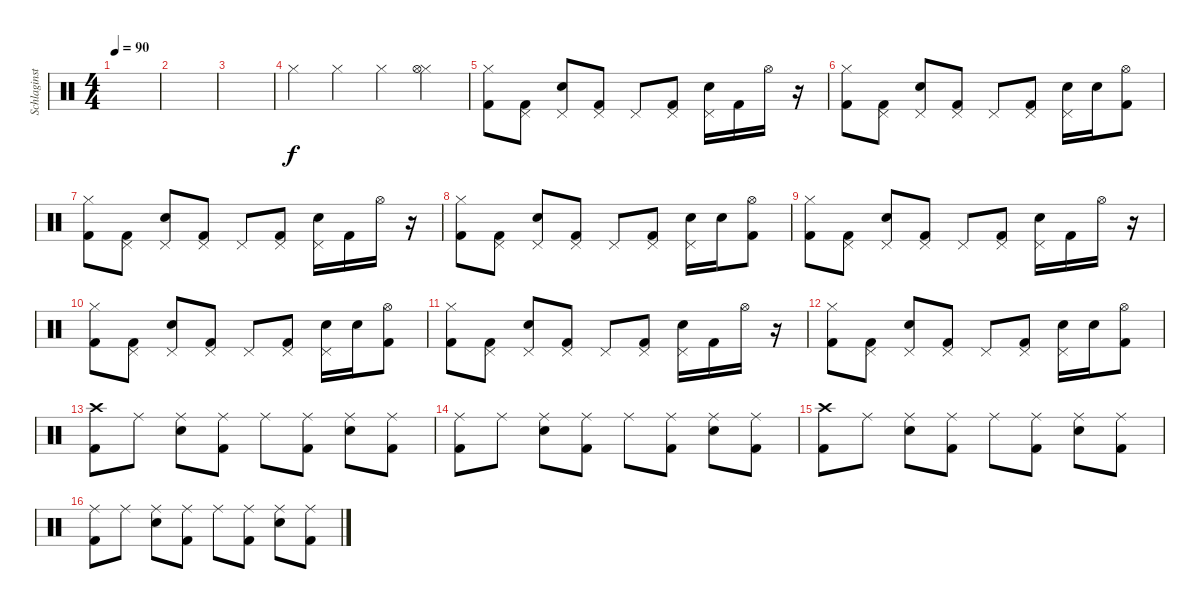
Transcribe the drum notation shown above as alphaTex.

\track ("Schlaginstrumente - Auswahl" "Schlaginst") {instrument percussion}
\staff {score}
\articulation defaults
\ts (4 4)
\tempo 90
\clef neutral
\ks c
|
|
|
"Hi-Hat (closed)".4 "Hi-Hat (closed)".4 "Hi-Hat (closed)".4 ("Hi-Hat (closed)" "Hi-Hat (open)").4 |
("Hi-Hat (closed)" "Kick (hit) 2").8 ("Pedal Hi-Hat (hit)" "Kick (hit) 2").8 ("Pedal Hi-Hat (hit)" "Snare (hit) 2").8 ("Pedal Hi-Hat (hit)" "Kick (hit) 2").8 "Pedal Hi-Hat (hit)".8 ("Pedal Hi-Hat (hit)" "Kick (hit) 2").8 ("Pedal Hi-Hat (hit)" "Snare (hit) 2").16 "Kick (hit) 2".16 "Hi-Hat (open)".16 r.16 |
("Hi-Hat (closed)" "Kick (hit) 2").8 ("Pedal Hi-Hat (hit)" "Kick (hit) 2").8 ("Pedal Hi-Hat (hit)" "Snare (hit) 2").8 ("Pedal Hi-Hat (hit)" "Kick (hit) 2").8 "Pedal Hi-Hat (hit)".8 ("Pedal Hi-Hat (hit)" "Kick (hit) 2").8 ("Pedal Hi-Hat (hit)" "Snare (hit) 2").16 "Snare (hit) 2".16 ("Hi-Hat (open)" "Kick (hit) 2").8 |
("Hi-Hat (closed)" "Kick (hit) 2").8 ("Pedal Hi-Hat (hit)" "Kick (hit) 2").8 ("Pedal Hi-Hat (hit)" "Snare (hit) 2").8 ("Pedal Hi-Hat (hit)" "Kick (hit) 2").8 "Pedal Hi-Hat (hit)".8 ("Pedal Hi-Hat (hit)" "Kick (hit) 2").8 ("Pedal Hi-Hat (hit)" "Snare (hit) 2").16 "Kick (hit) 2".16 "Hi-Hat (open)".16 r.16 |
("Hi-Hat (closed)" "Kick (hit) 2").8 ("Pedal Hi-Hat (hit)" "Kick (hit) 2").8 ("Pedal Hi-Hat (hit)" "Snare (hit) 2").8 ("Pedal Hi-Hat (hit)" "Kick (hit) 2").8 "Pedal Hi-Hat (hit)".8 ("Pedal Hi-Hat (hit)" "Kick (hit) 2").8 ("Pedal Hi-Hat (hit)" "Snare (hit) 2").16 "Snare (hit) 2".16 ("Hi-Hat (open)" "Kick (hit) 2").8 |
("Hi-Hat (closed)" "Kick (hit) 2").8 ("Pedal Hi-Hat (hit)" "Kick (hit) 2").8 ("Pedal Hi-Hat (hit)" "Snare (hit) 2").8 ("Pedal Hi-Hat (hit)" "Kick (hit) 2").8 "Pedal Hi-Hat (hit)".8 ("Pedal Hi-Hat (hit)" "Kick (hit) 2").8 ("Pedal Hi-Hat (hit)" "Snare (hit) 2").16 "Kick (hit) 2".16 "Hi-Hat (open)".16 r.16 |
("Hi-Hat (closed)" "Kick (hit) 2").8 ("Pedal Hi-Hat (hit)" "Kick (hit) 2").8 ("Pedal Hi-Hat (hit)" "Snare (hit) 2").8 ("Pedal Hi-Hat (hit)" "Kick (hit) 2").8 "Pedal Hi-Hat (hit)".8 ("Pedal Hi-Hat (hit)" "Kick (hit) 2").8 ("Pedal Hi-Hat (hit)" "Snare (hit) 2").16 "Snare (hit) 2".16 ("Hi-Hat (open)" "Kick (hit) 2").8 |
("Hi-Hat (closed)" "Kick (hit) 2").8 ("Pedal Hi-Hat (hit)" "Kick (hit) 2").8 ("Pedal Hi-Hat (hit)" "Snare (hit) 2").8 ("Pedal Hi-Hat (hit)" "Kick (hit) 2").8 "Pedal Hi-Hat (hit)".8 ("Pedal Hi-Hat (hit)" "Kick (hit) 2").8 ("Pedal Hi-Hat (hit)" "Snare (hit) 2").16 "Kick (hit) 2".16 "Hi-Hat (open)".16 r.16 |
("Hi-Hat (closed)" "Kick (hit) 2").8 ("Pedal Hi-Hat (hit)" "Kick (hit) 2").8 ("Pedal Hi-Hat (hit)" "Snare (hit) 2").8 ("Pedal Hi-Hat (hit)" "Kick (hit) 2").8 "Pedal Hi-Hat (hit)".8 ("Pedal Hi-Hat (hit)" "Kick (hit) 2").8 ("Pedal Hi-Hat (hit)" "Snare (hit) 2").16 "Snare (hit) 2".16 ("Hi-Hat (open)" "Kick (hit) 2").8 |
("Crash high (hit)" "Kick (hit) 2").8 "Ride (middle)".8 ("Ride (middle)" "Snare (hit) 2").8 ("Ride (middle)" "Kick (hit) 2").8 "Ride (middle)".8 ("Ride (middle)" "Kick (hit) 2").8 ("Ride (middle)" "Snare (hit) 2").8 ("Ride (middle)" "Kick (hit) 2").8 |
("Ride (middle)" "Kick (hit) 2").8 "Ride (middle)".8 ("Ride (middle)" "Snare (hit) 2").8 ("Ride (middle)" "Kick (hit) 2").8 "Ride (middle)".8 ("Ride (middle)" "Kick (hit) 2").8 ("Ride (middle)" "Snare (hit) 2").8 ("Ride (middle)" "Kick (hit) 2").8 |
("Crash high (hit)" "Kick (hit) 2").8 "Ride (middle)".8 ("Ride (middle)" "Snare (hit) 2").8 ("Ride (middle)" "Kick (hit) 2").8 "Ride (middle)".8 ("Ride (middle)" "Kick (hit) 2").8 ("Ride (middle)" "Snare (hit) 2").8 ("Ride (middle)" "Kick (hit) 2").8 |
("Ride (middle)" "Kick (hit) 2").8 "Ride (middle)".8 ("Ride (middle)" "Snare (hit) 2").8 ("Ride (middle)" "Kick (hit) 2").8 "Ride (middle)".8 ("Ride (middle)" "Kick (hit) 2").8 ("Ride (middle)" "Snare (hit) 2").8 ("Ride (middle)" "Kick (hit) 2").8
